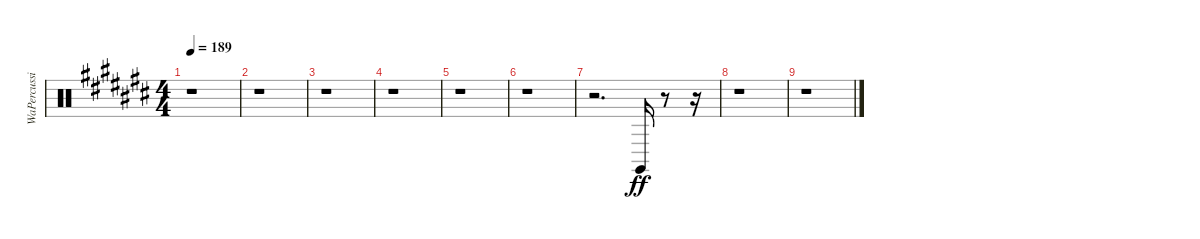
\track ("WaPercussion" "WaPercussi") {instrument percussion}
\staff {score}
\articulation defaults
\ts (4 4)
\tempo 189
\clef neutral
\ks a#minor
r.1{dy ff} |
\ks c#
r.1 |
\ks a#minor
r.1 |
\ks c#
r.1 |
\ks a#minor
r.1 |
r.1 |
r.2{d} "Claves (hit)".16 r.8 r.16 |
r.1 |
\ks c#
r.1
